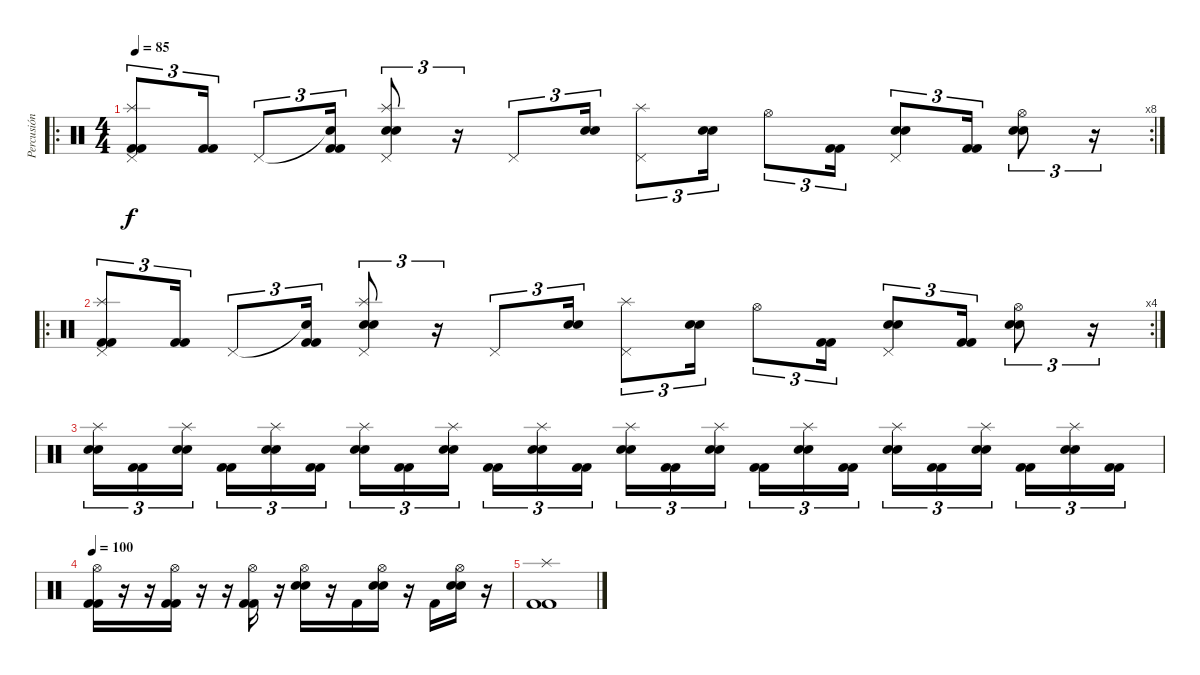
\track ("Percusión" "Percusión") {instrument percussion}
\staff {score}
\articulation defaults
\ro
\rc 8
\ts (4 4)
\tempo 85
\clef neutral
\ks c
("Pedal Hi-Hat (hit)" "Splash (hit)" "Kick (hit) 2" "Kick (hit) 2").8{tu (3 2) dy f} ("Kick (hit) 2" "Kick (hit) 2").16{tu (3 2)} "Pedal Hi-Hat (hit)".8{tu (3 2)} ("Snare (hit)"{t} "Kick (hit) 2" "Kick (hit) 2").16{tu (3 2)} ("Pedal Hi-Hat (hit)" "Splash (hit)" "Electric Snare (hit)" "Electric Snare (hit)").8{tu (3 2)} r.16{tu (3 2)} "Pedal Hi-Hat (hit)".8{tu (3 2)} ("Electric Snare (hit)" "Electric Snare (hit)").16{tu (3 2)} ("Pedal Hi-Hat (hit)" "Splash (hit)").8{tu (3 2)} ("Electric Snare (hit)" "Electric Snare (hit)").16{tu (3 2)} "Hi-Hat (open)".8{tu (3 2)} ("Kick (hit) 2" "Kick (hit) 2").16{tu (3 2)} ("Pedal Hi-Hat (hit)" "Electric Snare (hit)" "Electric Snare (hit)").8{tu (3 2)} ("Kick (hit) 2" "Kick (hit) 2").16{tu (3 2)} ("Hi-Hat (open)" "Electric Snare (hit)" "Electric Snare (hit)").8{tu (3 2)} r.16{tu (3 2)} |
\ro
\rc 4
("Pedal Hi-Hat (hit)" "Splash (hit)" "Kick (hit) 2" "Kick (hit) 2").8{tu (3 2)} ("Kick (hit) 2" "Kick (hit) 2").16{tu (3 2)} "Pedal Hi-Hat (hit)".8{tu (3 2)} ("Snare (hit)"{t} "Kick (hit) 2" "Kick (hit) 2").16{tu (3 2)} ("Pedal Hi-Hat (hit)" "Splash (hit)" "Electric Snare (hit)" "Electric Snare (hit)").8{tu (3 2)} r.16{tu (3 2)} "Pedal Hi-Hat (hit)".8{tu (3 2)} ("Electric Snare (hit)" "Electric Snare (hit)").16{tu (3 2)} ("Pedal Hi-Hat (hit)" "Splash (hit)").8{tu (3 2)} ("Electric Snare (hit)" "Electric Snare (hit)").16{tu (3 2)} "Hi-Hat (open)".8{tu (3 2)} ("Kick (hit) 2" "Kick (hit) 2").16{tu (3 2)} ("Pedal Hi-Hat (hit)" "Electric Snare (hit)" "Electric Snare (hit)").8{tu (3 2)} ("Kick (hit) 2" "Kick (hit) 2").16{tu (3 2)} ("Hi-Hat (open)" "Electric Snare (hit)" "Electric Snare (hit)").8{tu (3 2)} r.16{tu (3 2)} |
("Splash (hit)" "Electric Snare (hit)" "Electric Snare (hit)").16{tu (3 2)} ("Kick (hit) 2" "Kick (hit) 2").16{tu (3 2)} ("Splash (hit)" "Electric Snare (hit)" "Electric Snare (hit)").16{tu (3 2)} ("Kick (hit) 2" "Kick (hit) 2").16{tu (3 2)} ("Splash (hit)" "Electric Snare (hit)" "Electric Snare (hit)").16{tu (3 2)} ("Kick (hit) 2" "Kick (hit) 2").16{tu (3 2)} ("Splash (hit)" "Electric Snare (hit)" "Electric Snare (hit)").16{tu (3 2)} ("Kick (hit) 2" "Kick (hit) 2").16{tu (3 2)} ("Splash (hit)" "Electric Snare (hit)" "Electric Snare (hit)").16{tu (3 2)} ("Kick (hit) 2" "Kick (hit) 2").16{tu (3 2)} ("Splash (hit)" "Electric Snare (hit)" "Electric Snare (hit)").16{tu (3 2)} ("Kick (hit) 2" "Kick (hit) 2").16{tu (3 2)} ("Splash (hit)" "Electric Snare (hit)" "Electric Snare (hit)").16{tu (3 2)} ("Kick (hit) 2" "Kick (hit) 2").16{tu (3 2)} ("Splash (hit)" "Electric Snare (hit)" "Electric Snare (hit)").16{tu (3 2)} ("Kick (hit) 2" "Kick (hit) 2").16{tu (3 2)} ("Splash (hit)" "Electric Snare (hit)" "Electric Snare (hit)").16{tu (3 2)} ("Kick (hit) 2" "Kick (hit) 2").16{tu (3 2)} ("Splash (hit)" "Electric Snare (hit)" "Electric Snare (hit)").16{tu (3 2)} ("Kick (hit) 2" "Kick (hit) 2").16{tu (3 2)} ("Splash (hit)" "Electric Snare (hit)" "Electric Snare (hit)").16{tu (3 2)} ("Kick (hit) 2" "Kick (hit) 2").16{tu (3 2)} ("Splash (hit)" "Electric Snare (hit)" "Electric Snare (hit)").16{tu (3 2)} ("Kick (hit) 2" "Kick (hit) 2").16{tu (3 2)} |
\tempo 100
("Hi-Hat (open)" "Kick (hit) 2" "Kick (hit) 2").16 r.16 r.16 ("Hi-Hat (open)" "Kick (hit) 2" "Kick (hit) 2").16 r.16 r.16 ("Hi-Hat (open)" "Kick (hit) 2" "Kick (hit) 2").16 r.16 ("Hi-Hat (open)" "Electric Snare (hit)" "Electric Snare (hit)").16 r.16 "Kick (hit) 2".16 ("Hi-Hat (open)" "Electric Snare (hit)" "Electric Snare (hit)").16 r.16 "Kick (hit) 2".16 ("Hi-Hat (open)" "Electric Snare (hit)" "Electric Snare (hit)").16 r.16 |
("Splash (hit)" "Kick (hit) 2" "Kick (hit) 2").1
